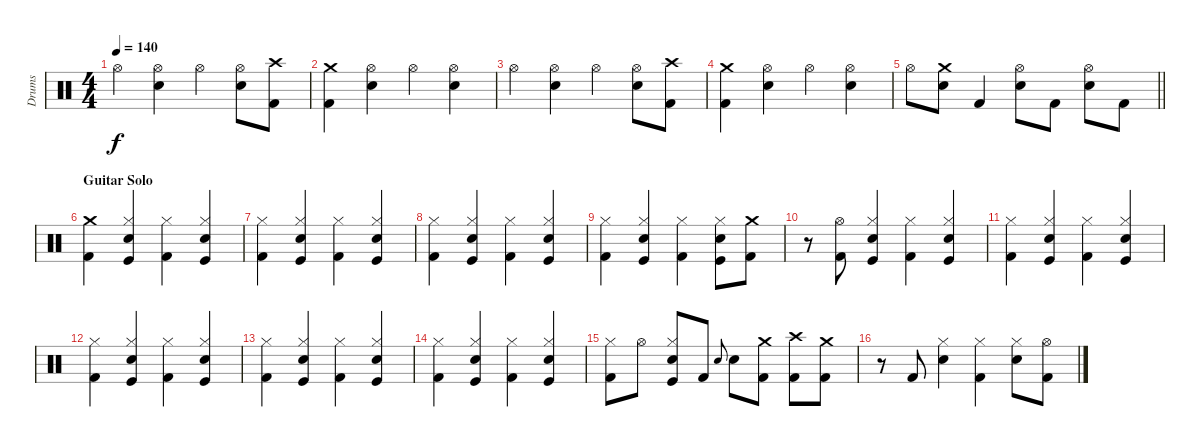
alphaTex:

\track ("Drums" "Drums") {instrument percussion}
\staff {score}
\articulation defaults
\ts (4 4)
\tempo 140
\clef neutral
\ks c "Hi-Hat (open)".4{dy f}
("Hi-Hat (open)" "Electric Snare (hit)").4 "Hi-Hat (open)".4 ("Hi-Hat (open)" "Electric Snare (hit)").8 ("Crash high (hit)" "Kick (hit) 2").8 |
("Crash medium (hit)" "Kick (hit) 2").4 ("Hi-Hat (open)" "Electric Snare (hit)").4 "Hi-Hat (open)".4 ("Hi-Hat (open)" "Electric Snare (hit)").4 |
"Hi-Hat (open)".4 ("Hi-Hat (open)" "Electric Snare (hit)").4 "Hi-Hat (open)".4 ("Hi-Hat (open)" "Electric Snare (hit)").8 ("Crash high (hit)" "Kick (hit) 2").8 |
("Crash medium (hit)" "Kick (hit) 2").4 ("Hi-Hat (open)" "Electric Snare (hit)").4 "Hi-Hat (open)".4 ("Hi-Hat (open)" "Electric Snare (hit)").4 |
\barLineRight lightlight "Hi-Hat (open)".8
("Crash medium (hit)" "Electric Snare (hit)").8 "Kick (hit) 2".4 ("Hi-Hat (open)" "Electric Snare (hit)").8 "Kick (hit) 2".8 ("Hi-Hat (open)" "Electric Snare (hit)").8 "Kick (hit) 2".8 |
\section ("" "Guitar Solo")
("Crash medium (hit)" "Kick (hit) 2").4 ("Hi-Hat (closed)" "Electric Snare (hit)" "Kick (hit)").4 ("Hi-Hat (closed)" "Kick (hit) 2").4 ("Hi-Hat (closed)" "Electric Snare (hit)" "Kick (hit)").4 |
("Hi-Hat (closed)" "Kick (hit) 2").4 ("Hi-Hat (closed)" "Electric Snare (hit)" "Kick (hit)").4 ("Hi-Hat (closed)" "Kick (hit) 2").4 ("Hi-Hat (closed)" "Electric Snare (hit)" "Kick (hit)").4 |
("Hi-Hat (closed)" "Kick (hit) 2").4 ("Hi-Hat (closed)" "Electric Snare (hit)" "Kick (hit)").4 ("Hi-Hat (closed)" "Kick (hit) 2").4 ("Hi-Hat (closed)" "Electric Snare (hit)" "Kick (hit)").4 |
("Hi-Hat (closed)" "Kick (hit) 2").4 ("Hi-Hat (closed)" "Electric Snare (hit)" "Kick (hit)").4 ("Hi-Hat (closed)" "Kick (hit) 2").4 ("Hi-Hat (closed)" "Electric Snare (hit)" "Kick (hit)").8 ("Crash medium (hit)" "Kick (hit) 2").8 |
r.8 ("Hi-Hat (open)" "Kick (hit) 2").8 ("Hi-Hat (closed)" "Electric Snare (hit)" "Kick (hit)").4 ("Hi-Hat (closed)" "Kick (hit) 2").4 ("Hi-Hat (closed)" "Electric Snare (hit)" "Kick (hit)").4 |
("Hi-Hat (closed)" "Kick (hit) 2").4 ("Hi-Hat (closed)" "Electric Snare (hit)" "Kick (hit)").4 ("Hi-Hat (closed)" "Kick (hit) 2").4 ("Hi-Hat (closed)" "Electric Snare (hit)" "Kick (hit)").4 |
("Hi-Hat (closed)" "Kick (hit) 2").4 ("Hi-Hat (closed)" "Electric Snare (hit)" "Kick (hit)").4 ("Hi-Hat (closed)" "Kick (hit) 2").4 ("Hi-Hat (closed)" "Electric Snare (hit)" "Kick (hit)").4 |
("Hi-Hat (closed)" "Kick (hit) 2").4 ("Hi-Hat (closed)" "Electric Snare (hit)" "Kick (hit)").4 ("Hi-Hat (closed)" "Kick (hit) 2").4 ("Hi-Hat (closed)" "Electric Snare (hit)" "Kick (hit)").4 |
("Hi-Hat (closed)" "Kick (hit) 2").4 ("Hi-Hat (closed)" "Electric Snare (hit)" "Kick (hit)").4 ("Hi-Hat (closed)" "Kick (hit) 2").4 ("Hi-Hat (closed)" "Electric Snare (hit)" "Kick (hit)").4 |
("Hi-Hat (closed)" "Kick (hit) 2").8 "Hi-Hat (open)".8 ("Hi-Hat (closed)" "Electric Snare (hit)" "Kick (hit)").8 "Kick (hit) 2".8 "Electric Snare (hit)".8{gr onbeat} "Electric Snare (hit)".8 ("Crash medium (hit)" "Kick (hit) 2").8 ("Crash high (hit)" "Kick (hit) 2").8 ("Crash medium (hit)" "Kick (hit) 2").8 |
r.8 "Kick (hit) 2".8 ("Hi-Hat (closed)" "Electric Snare (hit)").4 ("Hi-Hat (closed)" "Kick (hit) 2").4 ("Hi-Hat (closed)" "Electric Snare (hit)").8 ("Hi-Hat (open)" "Kick (hit) 2").8
